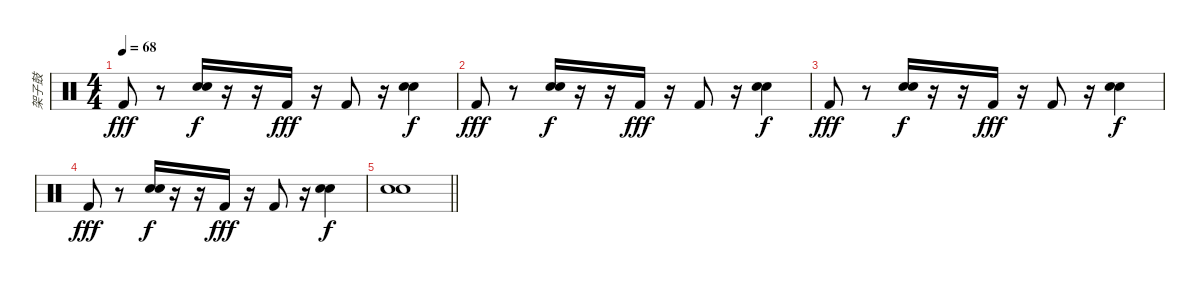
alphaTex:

\track ("架子鼓" "架子鼓") {instrument percussion}
\staff {score}
\articulation defaults
\ts (4 4)
\tempo 68
\clef neutral
\ks c "Kick (hit) 2".8{dy fff}
r.8 ("Snare (hit) 2" "Hand Clap (hit)").16{dy f} r.16 r.16 "Kick (hit) 2".16{dy fff} r.16 "Kick (hit) 2".8 r.16 ("Snare (hit) 2" "Hand Clap (hit)").4{dy f} |
"Kick (hit) 2".8{dy fff} r.8 ("Snare (hit) 2" "Hand Clap (hit)").16{dy f} r.16 r.16 "Kick (hit) 2".16{dy fff} r.16 "Kick (hit) 2".8 r.16 ("Snare (hit) 2" "Hand Clap (hit)").4{dy f} |
"Kick (hit) 2".8{dy fff} r.8 ("Snare (hit) 2" "Hand Clap (hit)").16{dy f} r.16 r.16 "Kick (hit) 2".16{dy fff} r.16 "Kick (hit) 2".8 r.16 ("Snare (hit) 2" "Hand Clap (hit)").4{dy f} |
"Kick (hit) 2".8{dy fff} r.8 ("Snare (hit) 2" "Hand Clap (hit)").16{dy f} r.16 r.16 "Kick (hit) 2".16{dy fff} r.16 "Kick (hit) 2".8 r.16 ("Snare (hit) 2" "Hand Clap (hit)").4{dy f} |
\barLineRight lightlight
("Snare (hit) 2" "Hand Clap (hit)").1
